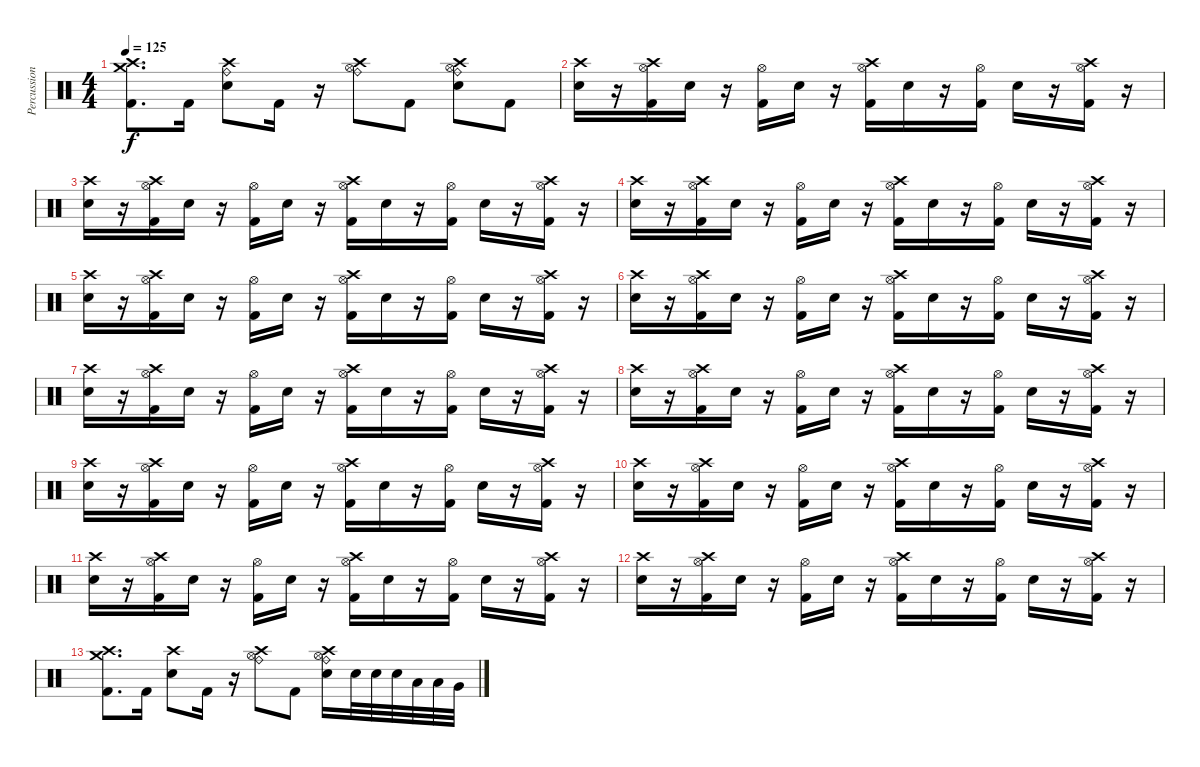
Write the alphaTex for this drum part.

\track ("Percussion" "Percussion") {instrument percussion}
\staff {score}
\articulation defaults
\ts (4 4)
\tempo 125
\clef neutral
\ks c
("Crash medium (hit)" "Crash high (hit)" "Kick (hit) 2").8{d dy f} "Kick (hit) 2".16 ("Ride (bell)" "Crash high (hit)" "Electric Snare (hit)").8 "Kick (hit) 2".16 r.16 ("Ride (bell)" "Crash high (hit)" "Hi-Hat (open)").8 "Kick (hit) 2".8 ("Ride (bell)" "Crash high (hit)" "Hi-Hat (open)" "Electric Snare (hit)").8 "Kick (hit) 2".8 |
("Crash high (hit)" "Electric Snare (hit)").16 r.16 ("Hi-Hat (open)" "Crash high (hit)" "Kick (hit) 2").16 "Electric Snare (hit)".16 r.16 ("Hi-Hat (open)" "Kick (hit) 2").16 "Electric Snare (hit)".16 r.16 ("Hi-Hat (open)" "Crash high (hit)" "Kick (hit) 2").16 "Electric Snare (hit)".16 r.16 ("Hi-Hat (open)" "Kick (hit) 2").16 "Electric Snare (hit)".16 r.16 ("Hi-Hat (open)" "Crash high (hit)" "Kick (hit) 2").16 r.16 |
("Crash high (hit)" "Electric Snare (hit)").16 r.16 ("Hi-Hat (open)" "Crash high (hit)" "Kick (hit) 2").16 "Electric Snare (hit)".16 r.16 ("Hi-Hat (open)" "Kick (hit) 2").16 "Electric Snare (hit)".16 r.16 ("Hi-Hat (open)" "Crash high (hit)" "Kick (hit) 2").16 "Electric Snare (hit)".16 r.16 ("Hi-Hat (open)" "Kick (hit) 2").16 "Electric Snare (hit)".16 r.16 ("Hi-Hat (open)" "Crash high (hit)" "Kick (hit) 2").16 r.16 |
("Crash high (hit)" "Electric Snare (hit)").16 r.16 ("Hi-Hat (open)" "Crash high (hit)" "Kick (hit) 2").16 "Electric Snare (hit)".16 r.16 ("Hi-Hat (open)" "Kick (hit) 2").16 "Electric Snare (hit)".16 r.16 ("Hi-Hat (open)" "Crash high (hit)" "Kick (hit) 2").16 "Electric Snare (hit)".16 r.16 ("Hi-Hat (open)" "Kick (hit) 2").16 "Electric Snare (hit)".16 r.16 ("Hi-Hat (open)" "Crash high (hit)" "Kick (hit) 2").16 r.16 |
("Crash high (hit)" "Electric Snare (hit)").16 r.16 ("Hi-Hat (open)" "Crash high (hit)" "Kick (hit) 2").16 "Electric Snare (hit)".16 r.16 ("Hi-Hat (open)" "Kick (hit) 2").16 "Electric Snare (hit)".16 r.16 ("Hi-Hat (open)" "Crash high (hit)" "Kick (hit) 2").16 "Electric Snare (hit)".16 r.16 ("Hi-Hat (open)" "Kick (hit) 2").16 "Electric Snare (hit)".16 r.16 ("Hi-Hat (open)" "Crash high (hit)" "Kick (hit) 2").16 r.16 |
("Crash high (hit)" "Electric Snare (hit)").16 r.16 ("Hi-Hat (open)" "Crash high (hit)" "Kick (hit) 2").16 "Electric Snare (hit)".16 r.16 ("Hi-Hat (open)" "Kick (hit) 2").16 "Electric Snare (hit)".16 r.16 ("Hi-Hat (open)" "Crash high (hit)" "Kick (hit) 2").16 "Electric Snare (hit)".16 r.16 ("Hi-Hat (open)" "Kick (hit) 2").16 "Electric Snare (hit)".16 r.16 ("Hi-Hat (open)" "Crash high (hit)" "Kick (hit) 2").16 r.16 |
("Crash high (hit)" "Electric Snare (hit)").16 r.16 ("Hi-Hat (open)" "Crash high (hit)" "Kick (hit) 2").16 "Electric Snare (hit)".16 r.16 ("Hi-Hat (open)" "Kick (hit) 2").16 "Electric Snare (hit)".16 r.16 ("Hi-Hat (open)" "Crash high (hit)" "Kick (hit) 2").16 "Electric Snare (hit)".16 r.16 ("Hi-Hat (open)" "Kick (hit) 2").16 "Electric Snare (hit)".16 r.16 ("Hi-Hat (open)" "Crash high (hit)" "Kick (hit) 2").16 r.16 |
("Crash high (hit)" "Electric Snare (hit)").16 r.16 ("Hi-Hat (open)" "Crash high (hit)" "Kick (hit) 2").16 "Electric Snare (hit)".16 r.16 ("Hi-Hat (open)" "Kick (hit) 2").16 "Electric Snare (hit)".16 r.16 ("Hi-Hat (open)" "Crash high (hit)" "Kick (hit) 2").16 "Electric Snare (hit)".16 r.16 ("Hi-Hat (open)" "Kick (hit) 2").16 "Electric Snare (hit)".16 r.16 ("Hi-Hat (open)" "Crash high (hit)" "Kick (hit) 2").16 r.16 |
("Crash high (hit)" "Electric Snare (hit)").16 r.16 ("Hi-Hat (open)" "Crash high (hit)" "Kick (hit) 2").16 "Electric Snare (hit)".16 r.16 ("Hi-Hat (open)" "Kick (hit) 2").16 "Electric Snare (hit)".16 r.16 ("Hi-Hat (open)" "Crash high (hit)" "Kick (hit) 2").16 "Electric Snare (hit)".16 r.16 ("Hi-Hat (open)" "Kick (hit) 2").16 "Electric Snare (hit)".16 r.16 ("Hi-Hat (open)" "Crash high (hit)" "Kick (hit) 2").16 r.16 |
("Crash high (hit)" "Electric Snare (hit)").16 r.16 ("Hi-Hat (open)" "Crash high (hit)" "Kick (hit) 2").16 "Electric Snare (hit)".16 r.16 ("Hi-Hat (open)" "Kick (hit) 2").16 "Electric Snare (hit)".16 r.16 ("Hi-Hat (open)" "Crash high (hit)" "Kick (hit) 2").16 "Electric Snare (hit)".16 r.16 ("Hi-Hat (open)" "Kick (hit) 2").16 "Electric Snare (hit)".16 r.16 ("Hi-Hat (open)" "Crash high (hit)" "Kick (hit) 2").16 r.16 |
("Crash high (hit)" "Electric Snare (hit)").16 r.16 ("Hi-Hat (open)" "Crash high (hit)" "Kick (hit) 2").16 "Electric Snare (hit)".16 r.16 ("Hi-Hat (open)" "Kick (hit) 2").16 "Electric Snare (hit)".16 r.16 ("Hi-Hat (open)" "Crash high (hit)" "Kick (hit) 2").16 "Electric Snare (hit)".16 r.16 ("Hi-Hat (open)" "Kick (hit) 2").16 "Electric Snare (hit)".16 r.16 ("Hi-Hat (open)" "Crash high (hit)" "Kick (hit) 2").16 r.16 |
("Crash high (hit)" "Electric Snare (hit)").16 r.16 ("Hi-Hat (open)" "Crash high (hit)" "Kick (hit) 2").16 "Electric Snare (hit)".16 r.16 ("Hi-Hat (open)" "Kick (hit) 2").16 "Electric Snare (hit)".16 r.16 ("Hi-Hat (open)" "Crash high (hit)" "Kick (hit) 2").16 "Electric Snare (hit)".16 r.16 ("Hi-Hat (open)" "Kick (hit) 2").16 "Electric Snare (hit)".16 r.16 ("Hi-Hat (open)" "Crash high (hit)" "Kick (hit) 2").16 r.16 |
("Crash medium (hit)" "Crash high (hit)" "Kick (hit) 2").8{d} "Kick (hit) 2".16 ("Crash high (hit)" "Electric Snare (hit)").8 "Kick (hit) 2".16 r.16 ("Ride (bell)" "Crash high (hit)" "Hi-Hat (open)").8 "Kick (hit) 2".8 ("Ride (bell)" "Crash high (hit)" "Hi-Hat (open)" "Electric Snare (hit)").16 "Electric Snare (hit)".32 "Electric Snare (hit)".32 "Electric Snare (hit)".32 "Low Tom (hit)".32 "Low Tom (hit)".32 "Very Low Tom (hit)".32
